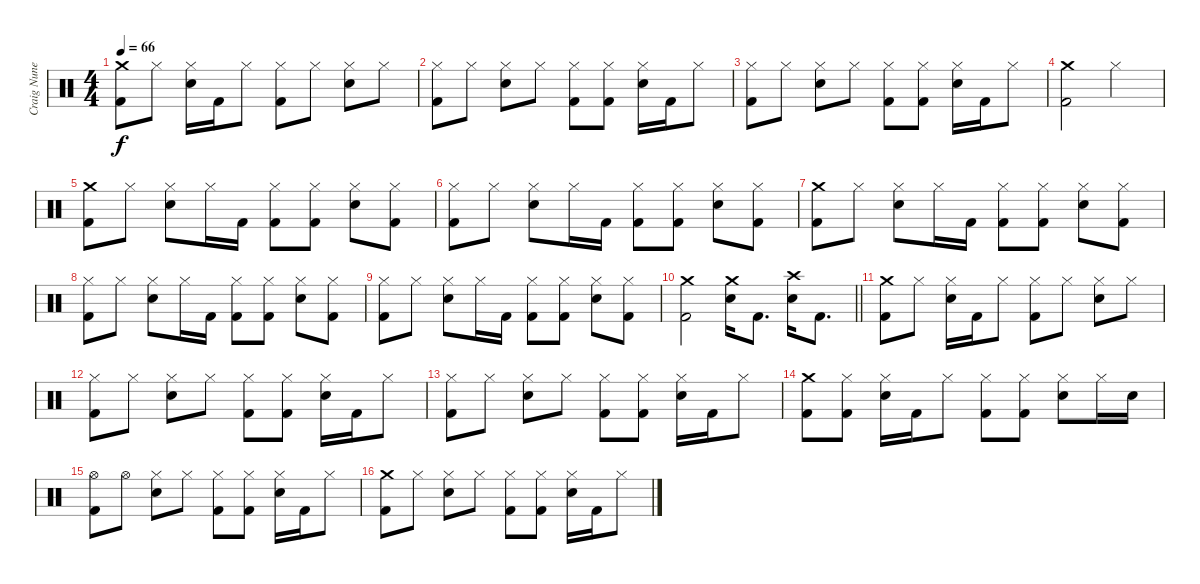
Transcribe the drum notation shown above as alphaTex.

\track ("Craig Nunenmacher" "Craig Nune") {instrument percussion}
\staff {score}
\articulation defaults
\ts (4 4)
\tempo 66
\clef neutral
\ks c
("Crash medium (hit)" "Kick (hit) 2").8{dy f} "Hi-Hat (closed)".8 ("Hi-Hat (closed)" "Snare (hit) 2").16 "Kick (hit) 2".16 "Hi-Hat (closed)".8 ("Hi-Hat (closed)" "Kick (hit) 2").8 "Hi-Hat (closed)".8 ("Hi-Hat (closed)" "Snare (hit) 2").8 "Hi-Hat (closed)".8 |
("Hi-Hat (closed)" "Kick (hit) 2").8 "Hi-Hat (closed)".8 ("Hi-Hat (closed)" "Snare (hit) 2").8 "Hi-Hat (closed)".8 ("Hi-Hat (closed)" "Kick (hit) 2").8 ("Hi-Hat (closed)" "Kick (hit) 2").8 ("Hi-Hat (closed)" "Snare (hit) 2").16 "Kick (hit) 2".16 "Hi-Hat (closed)".8 |
("Hi-Hat (closed)" "Kick (hit) 2").8 "Hi-Hat (closed)".8 ("Hi-Hat (closed)" "Snare (hit) 2").8 "Hi-Hat (closed)".8 ("Hi-Hat (closed)" "Kick (hit) 2").8 ("Hi-Hat (closed)" "Kick (hit) 2").8 ("Hi-Hat (closed)" "Snare (hit) 2").16 "Kick (hit) 2".16 "Hi-Hat (closed)".8 |
("Crash medium (hit)" "Kick (hit) 2").2 "Hi-Hat (closed)".2 |
("Crash medium (hit)" "Kick (hit) 2").8 "Hi-Hat (closed)".8 ("Hi-Hat (closed)" "Snare (hit) 2").8 "Hi-Hat (closed)".16 "Kick (hit) 2".16 ("Hi-Hat (closed)" "Kick (hit) 2").8 ("Hi-Hat (closed)" "Kick (hit) 2").8 ("Hi-Hat (closed)" "Snare (hit) 2").8 ("Hi-Hat (closed)" "Kick (hit) 2").8 |
("Hi-Hat (closed)" "Kick (hit) 2").8 "Hi-Hat (closed)".8 ("Hi-Hat (closed)" "Snare (hit) 2").8 "Hi-Hat (closed)".16 "Kick (hit) 2".16 ("Hi-Hat (closed)" "Kick (hit) 2").8 ("Hi-Hat (closed)" "Kick (hit) 2").8 ("Hi-Hat (closed)" "Snare (hit) 2").8 ("Hi-Hat (closed)" "Kick (hit) 2").8 |
("Crash medium (hit)" "Kick (hit) 2").8 "Hi-Hat (closed)".8 ("Hi-Hat (closed)" "Snare (hit) 2").8 "Hi-Hat (closed)".16 "Kick (hit) 2".16 ("Hi-Hat (closed)" "Kick (hit) 2").8 ("Hi-Hat (closed)" "Kick (hit) 2").8 ("Hi-Hat (closed)" "Snare (hit) 2").8 ("Hi-Hat (closed)" "Kick (hit) 2").8 |
("Hi-Hat (closed)" "Kick (hit) 2").8 "Hi-Hat (closed)".8 ("Hi-Hat (closed)" "Snare (hit) 2").8 "Hi-Hat (closed)".16 "Kick (hit) 2".16 ("Hi-Hat (closed)" "Kick (hit) 2").8 ("Hi-Hat (closed)" "Kick (hit) 2").8 ("Hi-Hat (closed)" "Snare (hit) 2").8 ("Hi-Hat (closed)" "Kick (hit) 2").8 |
("Hi-Hat (closed)" "Kick (hit) 2").8 "Hi-Hat (closed)".8 ("Hi-Hat (closed)" "Snare (hit) 2").8 "Hi-Hat (closed)".16 "Kick (hit) 2".16 ("Hi-Hat (closed)" "Kick (hit) 2").8 ("Hi-Hat (closed)" "Kick (hit) 2").8 ("Hi-Hat (closed)" "Snare (hit) 2").8 ("Hi-Hat (closed)" "Kick (hit) 2").8 |
\barLineRight lightlight
("Crash medium (hit)" "Kick (hit) 2").2 ("Crash medium (hit)" "Snare (hit) 2").16 "Kick (hit) 2".8{d} ("Crash high (hit)" "Snare (hit) 2").16 "Kick (hit) 2".8{d} |
("Crash medium (hit)" "Kick (hit) 2").8 "Hi-Hat (closed)".8 ("Hi-Hat (closed)" "Snare (hit) 2").16 "Kick (hit) 2".16 "Hi-Hat (closed)".8 ("Hi-Hat (closed)" "Kick (hit) 2").8 "Hi-Hat (closed)".8 ("Hi-Hat (closed)" "Snare (hit) 2").8 "Hi-Hat (closed)".8 |
("Hi-Hat (closed)" "Kick (hit) 2").8 "Hi-Hat (closed)".8 ("Hi-Hat (closed)" "Snare (hit) 2").8 "Hi-Hat (closed)".8 ("Hi-Hat (closed)" "Kick (hit) 2").8 ("Hi-Hat (closed)" "Kick (hit) 2").8 ("Hi-Hat (closed)" "Snare (hit) 2").16 "Kick (hit) 2".16 "Hi-Hat (closed)".8 |
("Hi-Hat (closed)" "Kick (hit) 2").8 "Hi-Hat (closed)".8 ("Hi-Hat (closed)" "Snare (hit) 2").8 "Hi-Hat (closed)".8 ("Hi-Hat (closed)" "Kick (hit) 2").8 ("Hi-Hat (closed)" "Kick (hit) 2").8 ("Hi-Hat (closed)" "Snare (hit) 2").16 "Kick (hit) 2".16 "Hi-Hat (closed)".8 |
("Crash medium (hit)" "Kick (hit) 2").8 ("Hi-Hat (closed)" "Kick (hit) 2").8 ("Hi-Hat (closed)" "Snare (hit) 2").16 "Kick (hit) 2".16 "Hi-Hat (closed)".8 ("Hi-Hat (closed)" "Kick (hit) 2").8 ("Hi-Hat (closed)" "Kick (hit) 2").8 ("Hi-Hat (closed)" "Snare (hit) 2").8 "Hi-Hat (closed)".16 "Snare (hit) 2".16 |
("Hi-Hat (open)" "Kick (hit) 2").8 "Hi-Hat (open)".8 ("Hi-Hat (closed)" "Snare (hit) 2").8 "Hi-Hat (closed)".8 ("Hi-Hat (closed)" "Kick (hit) 2").8 ("Hi-Hat (closed)" "Kick (hit) 2").8 ("Hi-Hat (closed)" "Snare (hit) 2").16 "Kick (hit) 2".16 "Hi-Hat (closed)".8 |
("Crash medium (hit)" "Kick (hit) 2").8 "Hi-Hat (closed)".8 ("Hi-Hat (closed)" "Snare (hit) 2").8 "Hi-Hat (closed)".8 ("Hi-Hat (closed)" "Kick (hit) 2").8 ("Hi-Hat (closed)" "Kick (hit) 2").8 ("Hi-Hat (closed)" "Snare (hit) 2").16 "Kick (hit) 2".16 "Hi-Hat (closed)".8
